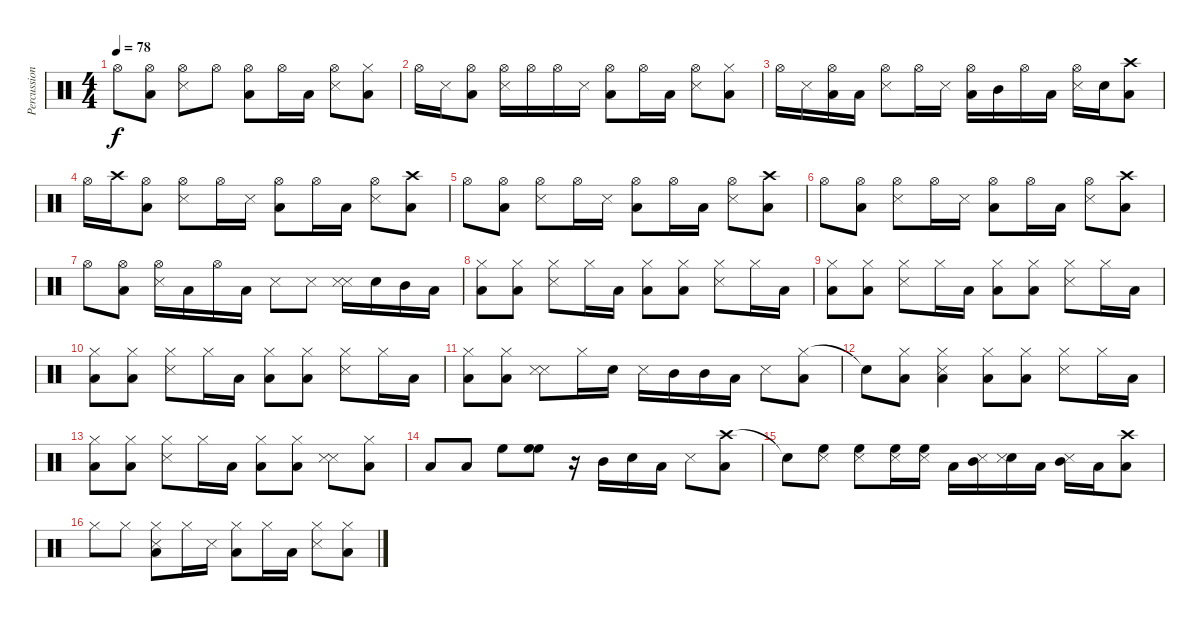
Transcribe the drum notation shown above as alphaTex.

\track ("Percussions" "Percussion") {instrument percussion}
\staff {score}
\articulation defaults
\ts (4 4)
\tempo 78
\clef neutral
\ks c "Hi-Hat (open)".8{dy f}
("Hi-Hat (open)" "Low Floor Tom (hit)").8 ("Hi-Hat (open)" "Snare (side stick) 3").8 "Hi-Hat (open)".8 ("Hi-Hat (open)" "Low Floor Tom (hit)").8 "Hi-Hat (open)".16 "Low Floor Tom (hit)".16 ("Hi-Hat (open)" "Snare (side stick) 3").8 ("Hi-Hat (closed)" "Low Floor Tom (hit)").8 |
"Hi-Hat (open)".16 "Snare (side stick) 3".16 ("Hi-Hat (open)" "Low Floor Tom (hit)").8 ("Hi-Hat (open)" "Snare (side stick) 3").16 "Hi-Hat (open)".16 "Hi-Hat (open)".16 "Snare (side stick) 3".16 ("Hi-Hat (open)" "Low Floor Tom (hit)").8 "Hi-Hat (open)".16 "Low Floor Tom (hit)".16 ("Hi-Hat (open)" "Snare (side stick) 3").8 ("Hi-Hat (closed)" "Low Floor Tom (hit)").8 |
"Hi-Hat (open)".16 "Snare (side stick) 3".16 ("Hi-Hat (open)" "Low Floor Tom (hit)").16 "Low Floor Tom (hit)".16 ("Hi-Hat (open)" "Snare (side stick) 3").8 "Hi-Hat (open)".16 "Snare (side stick) 3".16 ("Hi-Hat (open)" "Low Floor Tom (hit)").16 "Mid Tom (hit)".16 "Hi-Hat (open)".16 "Low Floor Tom (hit)".16 ("Hi-Hat (open)" "Snare (side stick) 3").16 "Snare (hit) 2".16 ("Crash high (hit)" "Low Floor Tom (hit)").8 |
"Hi-Hat (open)".16 "Crash high (hit)".16 ("Hi-Hat (open)" "Low Floor Tom (hit)").8 ("Hi-Hat (open)" "Snare (side stick) 3").8 "Hi-Hat (open)".16 "Snare (side stick) 3".16 ("Hi-Hat (open)" "Low Floor Tom (hit)").8 "Hi-Hat (open)".16 "Low Floor Tom (hit)".16 ("Hi-Hat (open)" "Snare (side stick) 3").8 ("Crash high (hit)" "Low Floor Tom (hit)").8 |
"Hi-Hat (open)".8 ("Hi-Hat (open)" "Low Floor Tom (hit)").8 ("Hi-Hat (open)" "Snare (side stick) 3").8 "Hi-Hat (open)".16 "Snare (side stick) 3".16 ("Hi-Hat (open)" "Low Floor Tom (hit)").8 "Hi-Hat (open)".16 "Low Floor Tom (hit)".16 ("Hi-Hat (open)" "Snare (side stick) 3").8 ("Crash high (hit)" "Low Floor Tom (hit)").8 |
"Hi-Hat (open)".8 ("Hi-Hat (open)" "Low Floor Tom (hit)").8 ("Hi-Hat (open)" "Snare (side stick) 3").8 "Hi-Hat (open)".16 "Snare (side stick) 3".16 ("Hi-Hat (open)" "Low Floor Tom (hit)").8 "Hi-Hat (open)".16 "Low Floor Tom (hit)".16 ("Hi-Hat (open)" "Snare (side stick) 3").8 ("Crash high (hit)" "Low Floor Tom (hit)").8 |
"Hi-Hat (open)".8 ("Hi-Hat (open)" "Low Floor Tom (hit)").8 ("Hi-Hat (open)" "Snare (side stick) 3").16 "Low Floor Tom (hit)".16 "Hi-Hat (open)".16 "Low Floor Tom (hit)".16 "Snare (side stick) 3".8 "Snare (side stick) 3".8 ("Snare (side stick) 3" "Snare (side stick) 3").16 "Snare (hit) 2".16 "Mid Tom (hit)".16 "Low Floor Tom (hit)".16 |
("Hi-Hat (closed)" "Low Floor Tom (hit)").8 ("Hi-Hat (closed)" "Low Floor Tom (hit)").8 ("Hi-Hat (closed)" "Snare (side stick) 3").8 "Hi-Hat (closed)".16 "Low Floor Tom (hit)".16 ("Hi-Hat (closed)" "Low Floor Tom (hit)").8 ("Hi-Hat (closed)" "Low Floor Tom (hit)").8 ("Hi-Hat (closed)" "Snare (side stick) 3").8 "Hi-Hat (closed)".16 "Low Floor Tom (hit)".16 |
("Hi-Hat (closed)" "Low Floor Tom (hit)").8 ("Hi-Hat (closed)" "Low Floor Tom (hit)").8 ("Hi-Hat (closed)" "Snare (side stick) 3").8 "Hi-Hat (closed)".16 "Low Floor Tom (hit)".16 ("Hi-Hat (closed)" "Low Floor Tom (hit)").8 ("Hi-Hat (closed)" "Low Floor Tom (hit)").8 ("Hi-Hat (closed)" "Snare (side stick) 3").8 "Hi-Hat (closed)".16 "Low Floor Tom (hit)".16 |
("Hi-Hat (closed)" "Low Floor Tom (hit)").8 ("Hi-Hat (closed)" "Low Floor Tom (hit)").8 ("Hi-Hat (closed)" "Snare (side stick) 3").8 "Hi-Hat (closed)".16 "Low Floor Tom (hit)".16 ("Hi-Hat (closed)" "Low Floor Tom (hit)").8 ("Hi-Hat (closed)" "Low Floor Tom (hit)").8 ("Hi-Hat (closed)" "Snare (side stick) 3").8 "Hi-Hat (closed)".16 "Low Floor Tom (hit)".16 |
("Hi-Hat (closed)" "Low Floor Tom (hit)").8 ("Hi-Hat (closed)" "Low Floor Tom (hit)").8 ("Snare (side stick) 3" "Snare (side stick) 3").8 "Hi-Hat (closed)".16 "Snare (hit) 2".16 "Snare (side stick) 3".16 "Mid Tom (hit)".16 "Mid Tom (hit)".16 "Low Floor Tom (hit)".16 "Snare (side stick) 3".8 ("Hi-Hat (closed)" "Low Floor Tom (hit)").8 |
"Snare (hit)"{t}.8 ("Hi-Hat (closed)" "Low Floor Tom (hit)").8 ("Hi-Hat (closed)" "Snare (side stick) 3" "Low Floor Tom (hit)").4 ("Hi-Hat (closed)" "Low Floor Tom (hit)").8 ("Hi-Hat (closed)" "Low Floor Tom (hit)").8 ("Hi-Hat (closed)" "Snare (side stick) 3").8 "Hi-Hat (closed)".16 "Low Floor Tom (hit)".16 |
("Hi-Hat (closed)" "Low Floor Tom (hit)").8 ("Hi-Hat (closed)" "Low Floor Tom (hit)").8 ("Hi-Hat (closed)" "Snare (side stick) 3").8 "Hi-Hat (closed)".16 "Low Floor Tom (hit)".16 ("Hi-Hat (closed)" "Low Floor Tom (hit)").8 ("Hi-Hat (closed)" "Low Floor Tom (hit)").8 ("Snare (side stick) 3" "Snare (side stick) 3").8 ("Hi-Hat (closed)" "Low Floor Tom (hit)").8 |
"Low Floor Tom (hit)".8 "Low Floor Tom (hit)".8 "High Floor Tom (hit)".8 ("High Floor Tom (hit)" "High Floor Tom (hit)").8 r.16 "Mid Tom (hit)".16 "Snare (hit) 2".16 "Low Floor Tom (hit)".16 "Snare (side stick) 3".8 ("Crash high (hit)" "Low Floor Tom (hit)").8 |
"Snare (hit)"{t}.8 ("High Floor Tom (hit)" "Snare (side stick) 3").8 ("High Floor Tom (hit)" "Snare (side stick) 3").8 ("High Floor Tom (hit)" "Snare (side stick) 3").16 ("High Floor Tom (hit)" "Snare (side stick) 3").16 "Low Floor Tom (hit)".16 ("Mid Tom (hit)" "Snare (side stick) 3").16 ("Snare (hit) 2" "Snare (side stick) 3").16 "Low Floor Tom (hit)".16 ("Mid Tom (hit)" "Snare (side stick) 3").16 "Low Floor Tom (hit)".16 ("Crash high (hit)" "Low Floor Tom (hit)").8 |
"Hi-Hat (closed)".8 "Hi-Hat (closed)".8 ("Hi-Hat (closed)" "Snare (side stick) 3" "Low Floor Tom (hit)").8 "Hi-Hat (closed)".16 "Snare (side stick) 3".16 ("Hi-Hat (closed)" "Low Floor Tom (hit)").8 "Hi-Hat (closed)".16 "Low Floor Tom (hit)".16 ("Hi-Hat (closed)" "Snare (side stick) 3").8 ("Hi-Hat (closed)" "Low Floor Tom (hit)").8
